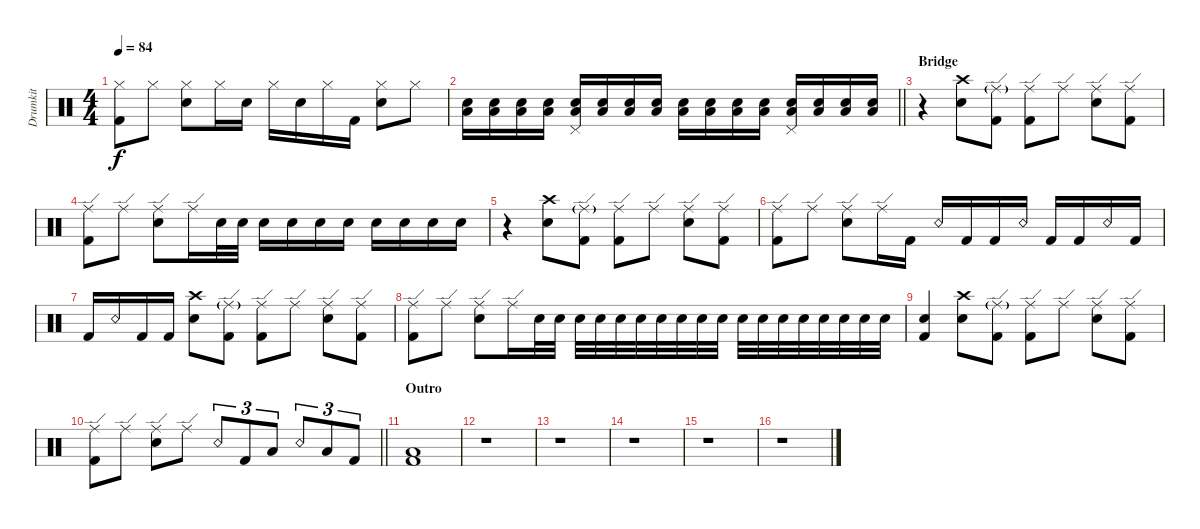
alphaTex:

\track ("Drumkit" "Drumkit") {instrument percussion}
\staff {score}
\articulation defaults
\ts (4 4)
\tempo 84
\clef neutral
\ks c
("Kick (hit) 2" "Hi-Hat (closed)").8{dy f} "Hi-Hat (closed)".8 ("Hi-Hat (closed)" "Snare (hit) 2").8 "Hi-Hat (closed)".16 "Snare (hit) 2".16 "Hi-Hat (closed)".16 "Snare (hit) 2".16 "Hi-Hat (closed)".16 "Kick (hit) 2".16 ("Snare (hit) 2" "Hi-Hat (closed)").8 "Hi-Hat (closed)".8 |
\barLineRight lightlight
("Snare (hit) 2" "Low Tom (hit)").16 ("Snare (hit) 2" "Low Tom (hit)").16 ("Snare (hit) 2" "Low Tom (hit)").16 ("Snare (hit) 2" "Low Tom (hit)").16 ("Snare (hit) 2" "Low Tom (hit)" "Pedal Hi-Hat (hit)").16 ("Snare (hit) 2" "Low Tom (hit)").16 ("Snare (hit) 2" "Low Tom (hit)").16 ("Snare (hit) 2" "Low Tom (hit)").16 ("Snare (hit) 2" "Low Tom (hit)").16 ("Snare (hit) 2" "Low Tom (hit)").16 ("Snare (hit) 2" "Low Tom (hit)").16 ("Snare (hit) 2" "Low Tom (hit)").16 ("Snare (hit) 2" "Low Tom (hit)" "Pedal Hi-Hat (hit)").16 ("Snare (hit) 2" "Low Tom (hit)").16 ("Snare (hit) 2" "Low Tom (hit)").16 ("Snare (hit) 2" "Low Tom (hit)").16 |
\section ("" "Bridge")
r.4 ("Crash high (hit)" "Snare (hit) 2").8 ("Kick (hit) 2" "Ride (edge)"{g}).8 ("Kick (hit) 2" "Ride (edge)").8 "Ride (edge)".8 ("Ride (edge)" "Snare (hit) 2").8 ("Ride (edge)" "Kick (hit) 2").8 |
("Kick (hit) 2" "Ride (edge)").8 "Ride (edge)".8 ("Ride (edge)" "Snare (hit) 2").8 "Ride (edge)".16 "Snare (hit) 2".32 "Snare (hit) 2".32 "Snare (hit) 2".16 "Snare (hit) 2".16 "Snare (hit) 2".16 "Snare (hit) 2".16 "Snare (hit) 2".16 "Snare (hit) 2".16 "Snare (hit) 2".16 "Snare (hit) 2".16 |
r.4 ("Crash high (hit)" "Snare (hit) 2").8 ("Kick (hit) 2" "Ride (edge)"{g}).8 ("Kick (hit) 2" "Ride (edge)").8 "Ride (edge)".8 ("Ride (edge)" "Snare (hit) 2").8 ("Ride (edge)" "Kick (hit) 2").8 |
("Kick (hit) 2" "Ride (edge)").8 "Ride (edge)".8 ("Ride (edge)" "Snare (hit) 2").8 "Ride (edge)".16 "Kick (hit) 2".16 "Snare (rim shot)".16 "Kick (hit) 2".16 "Kick (hit) 2".16 "Snare (rim shot)".16 "Kick (hit) 2".16 "Kick (hit) 2".16 "Snare (rim shot)".16 "Kick (hit) 2".16 |
"Kick (hit) 2".16 "Snare (rim shot)".16 "Kick (hit) 2".16 "Kick (hit) 2".16 ("Snare (hit) 2" "Crash high (hit)").8 ("Kick (hit) 2" "Ride (edge)"{g}).8 ("Kick (hit) 2" "Ride (edge)").8 "Ride (edge)".8 ("Ride (edge)" "Snare (hit) 2").8 ("Ride (edge)" "Kick (hit) 2").8 |
("Kick (hit) 2" "Ride (edge)").8 "Ride (edge)".8 ("Ride (edge)" "Snare (hit) 2").8 "Ride (edge)".16 "Snare (hit) 2".32 "Snare (hit) 2".32 "Snare (hit) 2".32 "Snare (hit) 2".32 "Snare (hit) 2".32 "Snare (hit) 2".32 "Snare (hit) 2".32 "Snare (hit) 2".32 "Snare (hit) 2".32 "Snare (hit) 2".32 "Snare (hit) 2".32 "Snare (hit) 2".32 "Snare (hit) 2".32 "Snare (hit) 2".32 "Snare (hit) 2".32 "Snare (hit) 2".32 "Snare (hit) 2".32 "Snare (hit) 2".32 |
("Kick (hit) 2" "Snare (hit) 2").4 ("Crash high (hit)" "Snare (hit) 2").8 ("Kick (hit) 2" "Ride (edge)"{g}).8 ("Kick (hit) 2" "Ride (edge)").8 "Ride (edge)".8 ("Ride (edge)" "Snare (hit) 2").8 ("Ride (edge)" "Kick (hit) 2").8 |
\barLineRight lightlight
("Kick (hit) 2" "Ride (edge)").8 "Ride (edge)".8 ("Ride (edge)" "Snare (hit) 2").8 "Ride (edge)".8 "Snare (rim shot)".8{tu (3 2)} "Kick (hit) 2".8{tu (3 2)} "Low Tom (hit)".8{tu (3 2)} "Snare (rim shot)".8{tu (3 2)} "Low Tom (hit)".8{tu (3 2)} "Kick (hit) 2".8{tu (3 2)} |
\section ("" "Outro")
("Low Tom (hit)" "Kick (hit) 2").1 |
r.1 |
r.1 |
r.1 |
r.1 |
r.1
